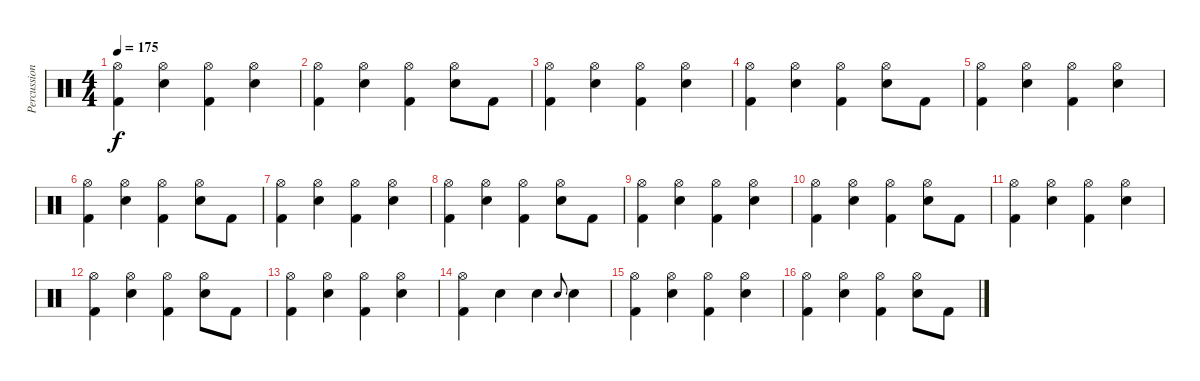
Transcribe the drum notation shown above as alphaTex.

\track ("Percussion" "Percussion") {instrument percussion}
\staff {score}
\articulation defaults
\ts (4 4)
\tempo 175
\clef neutral
\ks c
("Hi-Hat (open)" "Kick (hit) 2").4{dy f} ("Hi-Hat (open)" "Electric Snare (hit)").4 ("Hi-Hat (open)" "Kick (hit) 2").4 ("Hi-Hat (open)" "Electric Snare (hit)").4 |
("Hi-Hat (open)" "Kick (hit) 2").4 ("Hi-Hat (open)" "Electric Snare (hit)").4 ("Hi-Hat (open)" "Kick (hit) 2").4 ("Hi-Hat (open)" "Electric Snare (hit)").8 "Kick (hit) 2".8 |
("Hi-Hat (open)" "Kick (hit) 2").4 ("Hi-Hat (open)" "Electric Snare (hit)").4 ("Hi-Hat (open)" "Kick (hit) 2").4 ("Hi-Hat (open)" "Electric Snare (hit)").4 |
("Hi-Hat (open)" "Kick (hit) 2").4 ("Hi-Hat (open)" "Electric Snare (hit)").4 ("Hi-Hat (open)" "Kick (hit) 2").4 ("Hi-Hat (open)" "Electric Snare (hit)").8 "Kick (hit) 2".8 |
("Hi-Hat (open)" "Kick (hit) 2").4 ("Hi-Hat (open)" "Electric Snare (hit)").4 ("Hi-Hat (open)" "Kick (hit) 2").4 ("Hi-Hat (open)" "Electric Snare (hit)").4 |
("Hi-Hat (open)" "Kick (hit) 2").4 ("Hi-Hat (open)" "Electric Snare (hit)").4 ("Hi-Hat (open)" "Kick (hit) 2").4 ("Hi-Hat (open)" "Electric Snare (hit)").8 "Kick (hit) 2".8 |
("Hi-Hat (open)" "Kick (hit) 2").4 ("Hi-Hat (open)" "Electric Snare (hit)").4 ("Hi-Hat (open)" "Kick (hit) 2").4 ("Hi-Hat (open)" "Electric Snare (hit)").4 |
("Hi-Hat (open)" "Kick (hit) 2").4 ("Hi-Hat (open)" "Electric Snare (hit)").4 ("Hi-Hat (open)" "Kick (hit) 2").4 ("Hi-Hat (open)" "Electric Snare (hit)").8 "Kick (hit) 2".8 |
("Hi-Hat (open)" "Kick (hit) 2").4 ("Hi-Hat (open)" "Electric Snare (hit)").4 ("Hi-Hat (open)" "Kick (hit) 2").4 ("Hi-Hat (open)" "Electric Snare (hit)").4 |
("Hi-Hat (open)" "Kick (hit) 2").4 ("Hi-Hat (open)" "Electric Snare (hit)").4 ("Hi-Hat (open)" "Kick (hit) 2").4 ("Hi-Hat (open)" "Electric Snare (hit)").8 "Kick (hit) 2".8 |
("Hi-Hat (open)" "Kick (hit) 2").4 ("Hi-Hat (open)" "Electric Snare (hit)").4 ("Hi-Hat (open)" "Kick (hit) 2").4 ("Hi-Hat (open)" "Electric Snare (hit)").4 |
("Hi-Hat (open)" "Kick (hit) 2").4 ("Hi-Hat (open)" "Electric Snare (hit)").4 ("Hi-Hat (open)" "Kick (hit) 2").4 ("Hi-Hat (open)" "Electric Snare (hit)").8 "Kick (hit) 2".8 |
("Hi-Hat (open)" "Kick (hit) 2").4 ("Hi-Hat (open)" "Electric Snare (hit)").4 ("Hi-Hat (open)" "Kick (hit) 2").4 ("Hi-Hat (open)" "Electric Snare (hit)").4 |
("Hi-Hat (open)" "Kick (hit) 2").4 "Electric Snare (hit)".4 "Electric Snare (hit)".4 "Electric Snare (hit)".8{gr onbeat} "Electric Snare (hit)".4 |
("Hi-Hat (open)" "Kick (hit) 2").4 ("Hi-Hat (open)" "Electric Snare (hit)").4 ("Hi-Hat (open)" "Kick (hit) 2").4 ("Hi-Hat (open)" "Electric Snare (hit)").4 |
("Hi-Hat (open)" "Kick (hit) 2").4 ("Hi-Hat (open)" "Electric Snare (hit)").4 ("Hi-Hat (open)" "Kick (hit) 2").4 ("Hi-Hat (open)" "Electric Snare (hit)").8 "Kick (hit) 2".8
